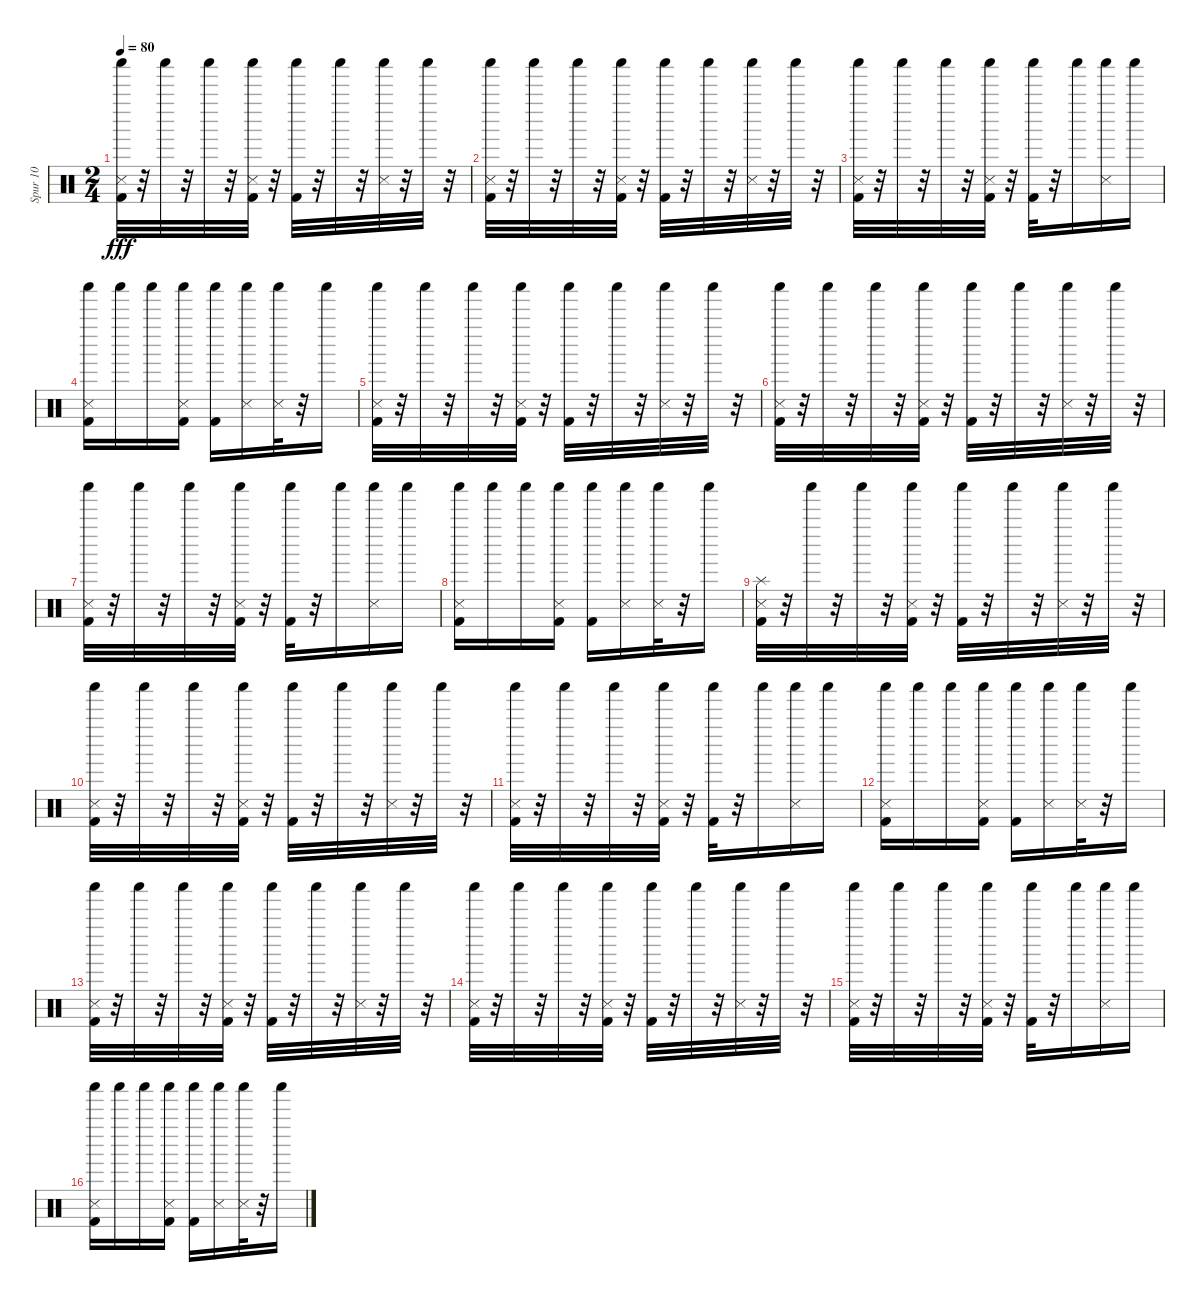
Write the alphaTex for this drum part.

\track ("Spur 10" "Spur 10") {instrument percussion}
\staff {score}
\articulation defaults
\ts (2 4)
\tempo 80
\clef neutral
\ks c
("Shaker (hit)" "Snare (side stick) 3" "Kick (hit) 2").32{dy fff} r.32 "Shaker (hit)".32 r.32 "Shaker (hit)".32 r.32 ("Shaker (hit)" "Snare (side stick) 3" "Kick (hit) 2").32 r.32 ("Shaker (hit)" "Kick (hit) 2").32 r.32 "Shaker (hit)".32 r.32 ("Shaker (hit)" "Snare (side stick) 3").32 r.32 "Shaker (hit)".32 r.32 |
("Shaker (hit)" "Snare (side stick) 3" "Kick (hit) 2").32 r.32 "Shaker (hit)".32 r.32 "Shaker (hit)".32 r.32 ("Shaker (hit)" "Kick (hit) 2" "Snare (side stick) 3").32 r.32 ("Shaker (hit)" "Kick (hit) 2").32 r.32 "Shaker (hit)".32 r.32 ("Shaker (hit)" "Snare (side stick) 3").32 r.32 "Shaker (hit)".32 r.32 |
("Shaker (hit)" "Kick (hit) 2" "Snare (side stick) 3").32 r.32 "Shaker (hit)".32 r.32 "Shaker (hit)".32 r.32 ("Shaker (hit)" "Kick (hit) 2" "Snare (side stick) 3").32 r.32 ("Shaker (hit)" "Kick (hit) 2").32 r.32 "Shaker (hit)".16 ("Shaker (hit)" "Snare (side stick) 3").16 "Shaker (hit)".16 |
("Shaker (hit)" "Snare (side stick) 3" "Kick (hit) 2").16 "Shaker (hit)".16 "Shaker (hit)".16 ("Shaker (hit)" "Kick (hit) 2" "Snare (side stick) 3").16 ("Shaker (hit)" "Kick (hit) 2").16 ("Shaker (hit)" "Snare (side stick) 3").16 ("Shaker (hit)" "Snare (side stick) 3").32 r.32 "Shaker (hit)".16 |
("Shaker (hit)" "Snare (side stick) 3" "Kick (hit) 2").32 r.32 "Shaker (hit)".32 r.32 "Shaker (hit)".32 r.32 ("Shaker (hit)" "Snare (side stick) 3" "Kick (hit) 2").32 r.32 ("Shaker (hit)" "Kick (hit) 2").32 r.32 "Shaker (hit)".32 r.32 ("Shaker (hit)" "Snare (side stick) 3").32 r.32 "Shaker (hit)".32 r.32 |
("Shaker (hit)" "Snare (side stick) 3" "Kick (hit) 2").32 r.32 "Shaker (hit)".32 r.32 "Shaker (hit)".32 r.32 ("Shaker (hit)" "Kick (hit) 2" "Snare (side stick) 3").32 r.32 ("Shaker (hit)" "Kick (hit) 2").32 r.32 "Shaker (hit)".32 r.32 ("Shaker (hit)" "Snare (side stick) 3").32 r.32 "Shaker (hit)".32 r.32 |
("Shaker (hit)" "Kick (hit) 2" "Snare (side stick) 3").32 r.32 "Shaker (hit)".32 r.32 "Shaker (hit)".32 r.32 ("Shaker (hit)" "Kick (hit) 2" "Snare (side stick) 3").32 r.32 ("Shaker (hit)" "Kick (hit) 2").32 r.32 "Shaker (hit)".16 ("Shaker (hit)" "Snare (side stick) 3").16 "Shaker (hit)".16 |
("Shaker (hit)" "Snare (side stick) 3" "Kick (hit) 2").16 "Shaker (hit)".16 "Shaker (hit)".16 ("Shaker (hit)" "Kick (hit) 2" "Snare (side stick) 3").16 ("Shaker (hit)" "Kick (hit) 2").16 ("Shaker (hit)" "Snare (side stick) 3").16 ("Shaker (hit)" "Snare (side stick) 3").32 r.32 "Shaker (hit)".16 |
("Splash (hit)" "Snare (side stick) 3" "Kick (hit) 2").32 r.32 "Shaker (hit)".32 r.32 "Shaker (hit)".32 r.32 ("Shaker (hit)" "Snare (side stick) 3" "Kick (hit) 2").32 r.32 ("Shaker (hit)" "Kick (hit) 2").32 r.32 "Shaker (hit)".32 r.32 ("Shaker (hit)" "Snare (side stick) 3").32 r.32 "Shaker (hit)".32 r.32 |
("Shaker (hit)" "Snare (side stick) 3" "Kick (hit) 2").32 r.32 "Shaker (hit)".32 r.32 "Shaker (hit)".32 r.32 ("Shaker (hit)" "Kick (hit) 2" "Snare (side stick) 3").32 r.32 ("Shaker (hit)" "Kick (hit) 2").32 r.32 "Shaker (hit)".32 r.32 ("Shaker (hit)" "Snare (side stick) 3").32 r.32 "Shaker (hit)".32 r.32 |
("Shaker (hit)" "Kick (hit) 2" "Snare (side stick) 3").32 r.32 "Shaker (hit)".32 r.32 "Shaker (hit)".32 r.32 ("Shaker (hit)" "Kick (hit) 2" "Snare (side stick) 3").32 r.32 ("Shaker (hit)" "Kick (hit) 2").32 r.32 "Shaker (hit)".16 ("Shaker (hit)" "Snare (side stick) 3").16 "Shaker (hit)".16 |
("Shaker (hit)" "Snare (side stick) 3" "Kick (hit) 2").16 "Shaker (hit)".16 "Shaker (hit)".16 ("Shaker (hit)" "Kick (hit) 2" "Snare (side stick) 3").16 ("Shaker (hit)" "Kick (hit) 2").16 ("Shaker (hit)" "Snare (side stick) 3").16 ("Shaker (hit)" "Snare (side stick) 3").32 r.32 "Shaker (hit)".16 |
("Shaker (hit)" "Snare (side stick) 3" "Kick (hit) 2").32 r.32 "Shaker (hit)".32 r.32 "Shaker (hit)".32 r.32 ("Shaker (hit)" "Snare (side stick) 3" "Kick (hit) 2").32 r.32 ("Shaker (hit)" "Kick (hit) 2").32 r.32 "Shaker (hit)".32 r.32 ("Shaker (hit)" "Snare (side stick) 3").32 r.32 "Shaker (hit)".32 r.32 |
("Shaker (hit)" "Snare (side stick) 3" "Kick (hit) 2").32 r.32 "Shaker (hit)".32 r.32 "Shaker (hit)".32 r.32 ("Shaker (hit)" "Kick (hit) 2" "Snare (side stick) 3").32 r.32 ("Shaker (hit)" "Kick (hit) 2").32 r.32 "Shaker (hit)".32 r.32 ("Shaker (hit)" "Snare (side stick) 3").32 r.32 "Shaker (hit)".32 r.32 |
("Shaker (hit)" "Kick (hit) 2" "Snare (side stick) 3").32 r.32 "Shaker (hit)".32 r.32 "Shaker (hit)".32 r.32 ("Shaker (hit)" "Kick (hit) 2" "Snare (side stick) 3").32 r.32 ("Shaker (hit)" "Kick (hit) 2").32 r.32 "Shaker (hit)".16 ("Shaker (hit)" "Snare (side stick) 3").16 "Shaker (hit)".16 |
("Shaker (hit)" "Snare (side stick) 3" "Kick (hit) 2").16 "Shaker (hit)".16 "Shaker (hit)".16 ("Shaker (hit)" "Kick (hit) 2" "Snare (side stick) 3").16 ("Shaker (hit)" "Kick (hit) 2").16 ("Shaker (hit)" "Snare (side stick) 3").16 ("Shaker (hit)" "Snare (side stick) 3").32 r.32 "Shaker (hit)".16
